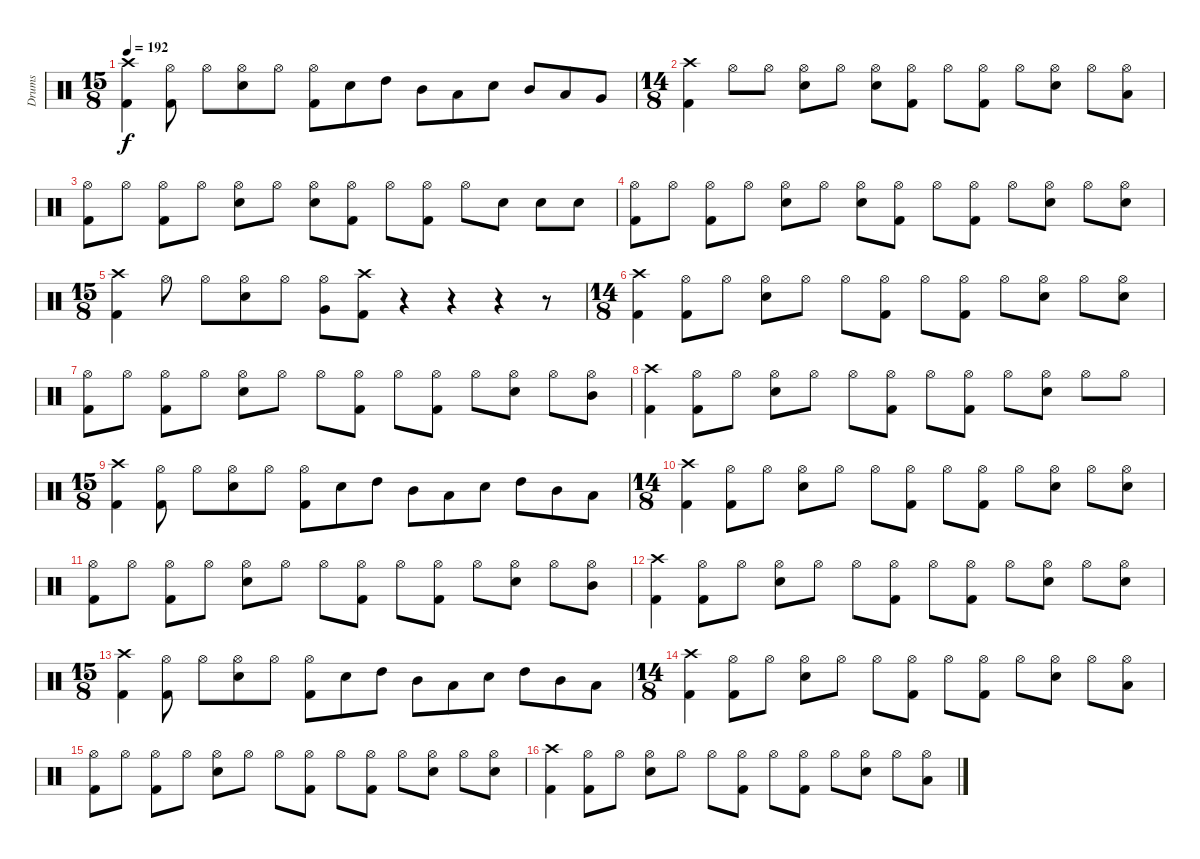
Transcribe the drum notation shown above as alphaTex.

\track ("Drums" "Drums") {instrument percussion}
\staff {score}
\articulation defaults
\ts (15 8)
\tempo 192
\clef neutral
\ks c
("Crash high (hit)" "Kick (hit) 2").4{dy f} ("Hi-Hat (open)" "Kick (hit) 2").8 "Hi-Hat (open)".8 ("Hi-Hat (open)" "Snare (hit) 2").8 "Hi-Hat (open)".8 ("Hi-Hat (open)" "Kick (hit) 2").8 "Snare (hit) 2".8 "High Tom (hit)".8 "Mid Tom (hit)".8 "Low Tom (hit)".8 "Snare (hit) 2".8 "Mid Tom (hit)".8 "Low Tom (hit)".8 "Very Low Tom (hit)".8 |
\ts (14 8)
("Crash high (hit)" "Kick (hit) 2").4 "Hi-Hat (open)".8 "Hi-Hat (open)".8 ("Hi-Hat (open)" "Snare (hit) 2").8 "Hi-Hat (open)".8 ("Hi-Hat (open)" "Snare (hit) 2").8 ("Hi-Hat (open)" "Kick (hit) 2").8 "Hi-Hat (open)".8 ("Hi-Hat (open)" "Kick (hit) 2").8 "Hi-Hat (open)".8 ("Hi-Hat (open)" "Snare (hit) 2").8 "Hi-Hat (open)".8 ("Hi-Hat (open)" "Low Tom (hit)").8 |
("Hi-Hat (open)" "Kick (hit) 2").8 "Hi-Hat (open)".8 ("Hi-Hat (open)" "Kick (hit) 2").8 "Hi-Hat (open)".8 ("Hi-Hat (open)" "Snare (hit) 2").8 "Hi-Hat (open)".8 ("Hi-Hat (open)" "Snare (hit) 2").8 ("Hi-Hat (open)" "Kick (hit) 2").8 "Hi-Hat (open)".8 ("Hi-Hat (open)" "Kick (hit) 2").8 "Hi-Hat (open)".8 "Snare (hit) 2".8 "Snare (hit) 2".8 "Snare (hit) 2".8 |
("Hi-Hat (open)" "Kick (hit) 2").8 "Hi-Hat (open)".8 ("Hi-Hat (open)" "Kick (hit) 2").8 "Hi-Hat (open)".8 ("Hi-Hat (open)" "Snare (hit) 2").8 "Hi-Hat (open)".8 ("Hi-Hat (open)" "Snare (hit) 2").8 ("Hi-Hat (open)" "Kick (hit) 2").8 "Hi-Hat (open)".8 ("Hi-Hat (open)" "Kick (hit) 2").8 "Hi-Hat (open)".8 ("Hi-Hat (open)" "Snare (hit) 2").8 "Hi-Hat (open)".8 ("Hi-Hat (open)" "Snare (hit) 2").8 |
\ts (15 8)
("Crash high (hit)" "Kick (hit) 2").4 "Hi-Hat (open)".8 "Hi-Hat (open)".8 ("Hi-Hat (open)" "Snare (hit) 2").8 "Hi-Hat (open)".8 ("Hi-Hat (open)" "Very Low Tom (hit)").8 ("Crash high (hit)" "Kick (hit) 2").8 r.4 r.4 r.4 r.8 |
\ts (14 8)
("Crash high (hit)" "Kick (hit) 2").4 ("Hi-Hat (open)" "Kick (hit) 2").8 "Hi-Hat (open)".8 ("Hi-Hat (open)" "Snare (hit) 2").8 "Hi-Hat (open)".8 "Hi-Hat (open)".8 ("Hi-Hat (open)" "Kick (hit) 2").8 "Hi-Hat (open)".8 ("Hi-Hat (open)" "Kick (hit) 2").8 "Hi-Hat (open)".8 ("Hi-Hat (open)" "Snare (hit) 2").8 "Hi-Hat (open)".8 ("Hi-Hat (open)" "Snare (hit) 2").8 |
("Hi-Hat (open)" "Kick (hit) 2").8 "Hi-Hat (open)".8 ("Hi-Hat (open)" "Kick (hit) 2").8 "Hi-Hat (open)".8 ("Hi-Hat (open)" "Snare (hit) 2").8 "Hi-Hat (open)".8 "Hi-Hat (open)".8 ("Hi-Hat (open)" "Kick (hit) 2").8 "Hi-Hat (open)".8 ("Hi-Hat (open)" "Kick (hit) 2").8 "Hi-Hat (open)".8 ("Hi-Hat (open)" "Snare (hit) 2").8 "Hi-Hat (open)".8 ("Hi-Hat (open)" "Mid Tom (hit)").8 |
("Crash high (hit)" "Kick (hit) 2").4 ("Hi-Hat (open)" "Kick (hit) 2").8 "Hi-Hat (open)".8 ("Hi-Hat (open)" "Snare (hit) 2").8 "Hi-Hat (open)".8 "Hi-Hat (open)".8 ("Hi-Hat (open)" "Kick (hit) 2").8 "Hi-Hat (open)".8 ("Hi-Hat (open)" "Kick (hit) 2").8 "Hi-Hat (open)".8 ("Hi-Hat (open)" "Snare (hit) 2").8 "Hi-Hat (open)".8 "Hi-Hat (open)".8 |
\ts (15 8)
("Crash high (hit)" "Kick (hit) 2").4 ("Hi-Hat (open)" "Kick (hit) 2").8 "Hi-Hat (open)".8 ("Hi-Hat (open)" "Snare (hit) 2").8 "Hi-Hat (open)".8 ("Hi-Hat (open)" "Kick (hit) 2").8 "Snare (hit) 2".8 "High Tom (hit)".8 "Mid Tom (hit)".8 "Low Tom (hit)".8 "Snare (hit) 2".8 "High Tom (hit)".8 "Mid Tom (hit)".8 "Low Tom (hit)".8 |
\ts (14 8)
("Crash high (hit)" "Kick (hit) 2").4 ("Hi-Hat (open)" "Kick (hit) 2").8 "Hi-Hat (open)".8 ("Hi-Hat (open)" "Snare (hit) 2").8 "Hi-Hat (open)".8 "Hi-Hat (open)".8 ("Hi-Hat (open)" "Kick (hit) 2").8 "Hi-Hat (open)".8 ("Hi-Hat (open)" "Kick (hit) 2").8 "Hi-Hat (open)".8 ("Hi-Hat (open)" "Snare (hit) 2").8 "Hi-Hat (open)".8 ("Hi-Hat (open)" "Snare (hit) 2").8 |
("Hi-Hat (open)" "Kick (hit) 2").8 "Hi-Hat (open)".8 ("Hi-Hat (open)" "Kick (hit) 2").8 "Hi-Hat (open)".8 ("Hi-Hat (open)" "Snare (hit) 2").8 "Hi-Hat (open)".8 "Hi-Hat (open)".8 ("Hi-Hat (open)" "Kick (hit) 2").8 "Hi-Hat (open)".8 ("Hi-Hat (open)" "Kick (hit) 2").8 "Hi-Hat (open)".8 ("Hi-Hat (open)" "Snare (hit) 2").8 "Hi-Hat (open)".8 ("Hi-Hat (open)" "Mid Tom (hit)").8 |
("Crash high (hit)" "Kick (hit) 2").4 ("Hi-Hat (open)" "Kick (hit) 2").8 "Hi-Hat (open)".8 ("Hi-Hat (open)" "Snare (hit) 2").8 "Hi-Hat (open)".8 "Hi-Hat (open)".8 ("Hi-Hat (open)" "Kick (hit) 2").8 "Hi-Hat (open)".8 ("Hi-Hat (open)" "Kick (hit) 2").8 "Hi-Hat (open)".8 ("Hi-Hat (open)" "Snare (hit) 2").8 "Hi-Hat (open)".8 ("Hi-Hat (open)" "Snare (hit) 2").8 |
\ts (15 8)
("Crash high (hit)" "Kick (hit) 2").4 ("Hi-Hat (open)" "Kick (hit) 2").8 "Hi-Hat (open)".8 ("Hi-Hat (open)" "Snare (hit) 2").8 "Hi-Hat (open)".8 ("Hi-Hat (open)" "Kick (hit) 2").8 "Snare (hit) 2".8 "High Tom (hit)".8 "Mid Tom (hit)".8 "Low Tom (hit)".8 "Snare (hit) 2".8 "High Tom (hit)".8 "Mid Tom (hit)".8 "Low Tom (hit)".8 |
\ts (14 8)
("Crash high (hit)" "Kick (hit) 2").4 ("Hi-Hat (open)" "Kick (hit) 2").8 "Hi-Hat (open)".8 ("Hi-Hat (open)" "Snare (hit) 2").8 "Hi-Hat (open)".8 "Hi-Hat (open)".8 ("Hi-Hat (open)" "Kick (hit) 2").8 "Hi-Hat (open)".8 ("Hi-Hat (open)" "Kick (hit) 2").8 "Hi-Hat (open)".8 ("Hi-Hat (open)" "Snare (hit) 2").8 "Hi-Hat (open)".8 ("Hi-Hat (open)" "Low Tom (hit)").8 |
("Hi-Hat (open)" "Kick (hit) 2").8 "Hi-Hat (open)".8 ("Hi-Hat (open)" "Kick (hit) 2").8 "Hi-Hat (open)".8 ("Hi-Hat (open)" "Snare (hit) 2").8 "Hi-Hat (open)".8 "Hi-Hat (open)".8 ("Hi-Hat (open)" "Kick (hit) 2").8 "Hi-Hat (open)".8 ("Hi-Hat (open)" "Kick (hit) 2").8 "Hi-Hat (open)".8 ("Hi-Hat (open)" "Snare (hit) 2").8 "Hi-Hat (open)".8 ("Hi-Hat (open)" "Snare (hit) 2").8 |
("Crash high (hit)" "Kick (hit) 2").4 ("Hi-Hat (open)" "Kick (hit) 2").8 "Hi-Hat (open)".8 ("Hi-Hat (open)" "Snare (hit) 2").8 "Hi-Hat (open)".8 "Hi-Hat (open)".8 ("Hi-Hat (open)" "Kick (hit) 2").8 "Hi-Hat (open)".8 ("Hi-Hat (open)" "Kick (hit) 2").8 "Hi-Hat (open)".8 ("Hi-Hat (open)" "Snare (hit) 2").8 "Hi-Hat (open)".8 ("Hi-Hat (open)" "Low Tom (hit)").8
